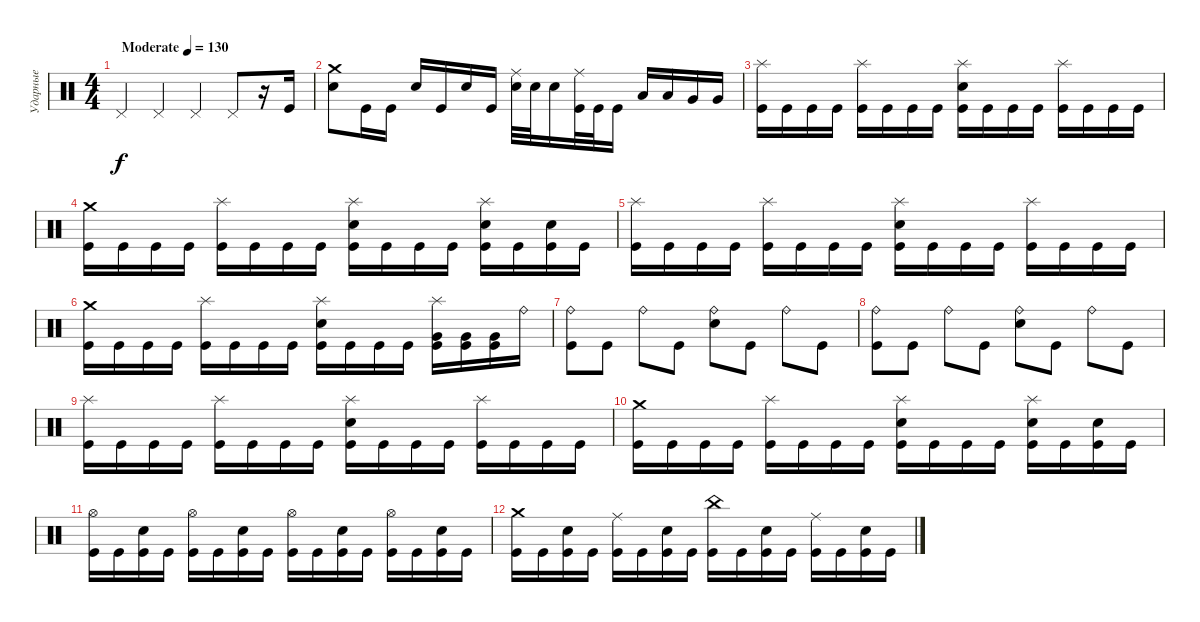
\track ("Ударные" "Ударные") {instrument percussion}
\staff {score}
\articulation defaults
\ts (4 4)
\tempo (130 "Moderate")
\clef neutral
\ks c "Pedal Hi-Hat (hit)".4{dy f} "Pedal Hi-Hat (hit)".4 "Pedal Hi-Hat (hit)".4 "Pedal Hi-Hat (hit)".8
r.16 "Kick (hit)".16 |
("Electric Snare (hit)" "Crash medium (hit)").8 "Kick (hit)".16 "Kick (hit)".16 "Electric Snare (hit)".16 "Kick (hit)".16 "Electric Snare (hit)".16 "Kick (hit)".16 ("Ride (middle)" "Electric Snare (hit)").32 "Electric Snare (hit)".32 "Electric Snare (hit)".16 ("Ride (middle)" "Kick (hit)").32 "Kick (hit)".32 "Kick (hit)".16 "Low Tom (hit)".16 "Low Tom (hit)".16 "Very Low Tom (hit)".16 "Very Low Tom (hit)".16 |
("Splash (hit)" "Kick (hit)").16 "Kick (hit)".16 "Kick (hit)".16 "Kick (hit)".16 ("Splash (hit)" "Kick (hit)").16 "Kick (hit)".16 "Kick (hit)".16 "Kick (hit)".16 ("Splash (hit)" "Electric Snare (hit)" "Kick (hit)").16 "Kick (hit)".16 "Kick (hit)".16 "Kick (hit)".16 ("Splash (hit)" "Kick (hit)").16 "Kick (hit)".16 "Kick (hit)".16 "Kick (hit)".16 |
("Crash medium (hit)" "Kick (hit)").16 "Kick (hit)".16 "Kick (hit)".16 "Kick (hit)".16 ("Splash (hit)" "Kick (hit)").16 "Kick (hit)".16 "Kick (hit)".16 "Kick (hit)".16 ("Splash (hit)" "Electric Snare (hit)" "Kick (hit)").16 "Kick (hit)".16 "Kick (hit)".16 "Kick (hit)".16 ("Splash (hit)" "Electric Snare (hit)" "Kick (hit)").16 "Kick (hit)".16 ("Electric Snare (hit)" "Kick (hit)").16 "Kick (hit)".16 |
("Splash (hit)" "Kick (hit)").16 "Kick (hit)".16 "Kick (hit)".16 "Kick (hit)".16 ("Splash (hit)" "Kick (hit)").16 "Kick (hit)".16 "Kick (hit)".16 "Kick (hit)".16 ("Splash (hit)" "Electric Snare (hit)" "Kick (hit)").16 "Kick (hit)".16 "Kick (hit)".16 "Kick (hit)".16 ("Splash (hit)" "Kick (hit)").16 "Kick (hit)".16 "Kick (hit)".16 "Kick (hit)".16 |
("Crash medium (hit)" "Kick (hit)").16 "Kick (hit)".16 "Kick (hit)".16 "Kick (hit)".16 ("Splash (hit)" "Kick (hit)").16 "Kick (hit)".16 "Kick (hit)".16 "Kick (hit)".16 ("Splash (hit)" "Electric Snare (hit)" "Kick (hit)").16 "Kick (hit)".16 "Kick (hit)".16 "Kick (hit)".16 ("Splash (hit)" "Very Low Tom (hit)" "Kick (hit)").16 ("Very Low Tom (hit)" "Kick (hit)").16 ("Very Low Tom (hit)" "Kick (hit)").16 "Ride (bell)".16 |
("Ride (bell)" "Kick (hit)").8 "Kick (hit)".8 "Ride (bell)".8 "Kick (hit)".8 ("Ride (bell)" "Electric Snare (hit)").8 "Kick (hit)".8 "Ride (bell)".8 "Kick (hit)".8 |
("Ride (bell)" "Kick (hit)").8 "Kick (hit)".8 "Ride (bell)".8 "Kick (hit)".8 ("Ride (bell)" "Electric Snare (hit)").8 "Kick (hit)".8 "Ride (bell)".8 "Kick (hit)".8 |
("Splash (hit)" "Kick (hit)").16 "Kick (hit)".16 "Kick (hit)".16 "Kick (hit)".16 ("Splash (hit)" "Kick (hit)").16 "Kick (hit)".16 "Kick (hit)".16 "Kick (hit)".16 ("Splash (hit)" "Electric Snare (hit)" "Kick (hit)").16 "Kick (hit)".16 "Kick (hit)".16 "Kick (hit)".16 ("Splash (hit)" "Kick (hit)").16 "Kick (hit)".16 "Kick (hit)".16 "Kick (hit)".16 |
("Crash medium (hit)" "Kick (hit)").16 "Kick (hit)".16 "Kick (hit)".16 "Kick (hit)".16 ("Splash (hit)" "Kick (hit)").16 "Kick (hit)".16 "Kick (hit)".16 "Kick (hit)".16 ("Splash (hit)" "Electric Snare (hit)" "Kick (hit)").16 "Kick (hit)".16 "Kick (hit)".16 "Kick (hit)".16 ("Splash (hit)" "Electric Snare (hit)" "Kick (hit)").16 "Kick (hit)".16 ("Electric Snare (hit)" "Kick (hit)").16 "Kick (hit)".16 |
("Hi-Hat (open)" "Kick (hit)").16 "Kick (hit)".16 ("Electric Snare (hit)" "Kick (hit)").16 "Kick (hit)".16 ("Hi-Hat (open)" "Kick (hit)").16 "Kick (hit)".16 ("Electric Snare (hit)" "Kick (hit)").16 "Kick (hit)".16 ("Hi-Hat (open)" "Kick (hit)").16 "Kick (hit)".16 ("Electric Snare (hit)" "Kick (hit)").16 "Kick (hit)".16 ("Hi-Hat (open)" "Kick (hit)").16 "Kick (hit)".16 ("Electric Snare (hit)" "Kick (hit)").16 "Kick (hit)".16 |
("Crash medium (hit)" "Kick (hit)").16 "Kick (hit)".16 ("Electric Snare (hit)" "Kick (hit)").16 "Kick (hit)".16 ("Ride (middle)" "Kick (hit)").16 "Kick (hit)".16 ("Electric Snare (hit)" "Kick (hit)").16 "Kick (hit)".16 ("China (hit)" "Kick (hit)").16 "Kick (hit)".16 ("Electric Snare (hit)" "Kick (hit)").16 "Kick (hit)".16 ("Ride (middle)" "Kick (hit)").16 "Kick (hit)".16 ("Electric Snare (hit)" "Kick (hit)").16 "Kick (hit)".16
